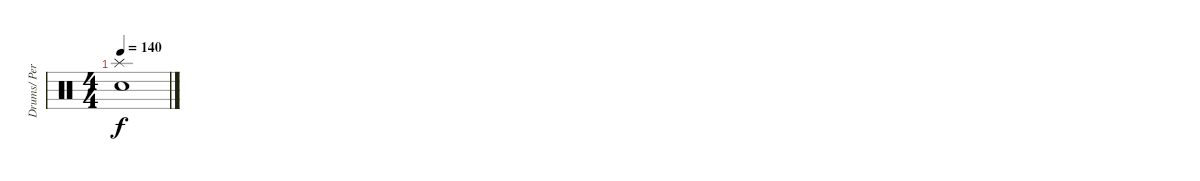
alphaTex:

\track ("Drums/ Percussion- Rob" "Drums/ Per") {instrument percussion}
\staff {score}
\articulation defaults
\ts (4 4)
\tempo 140
\clef neutral
\ks c
("Splash (hit)" "Snare (hit) 2").1{dy f}
